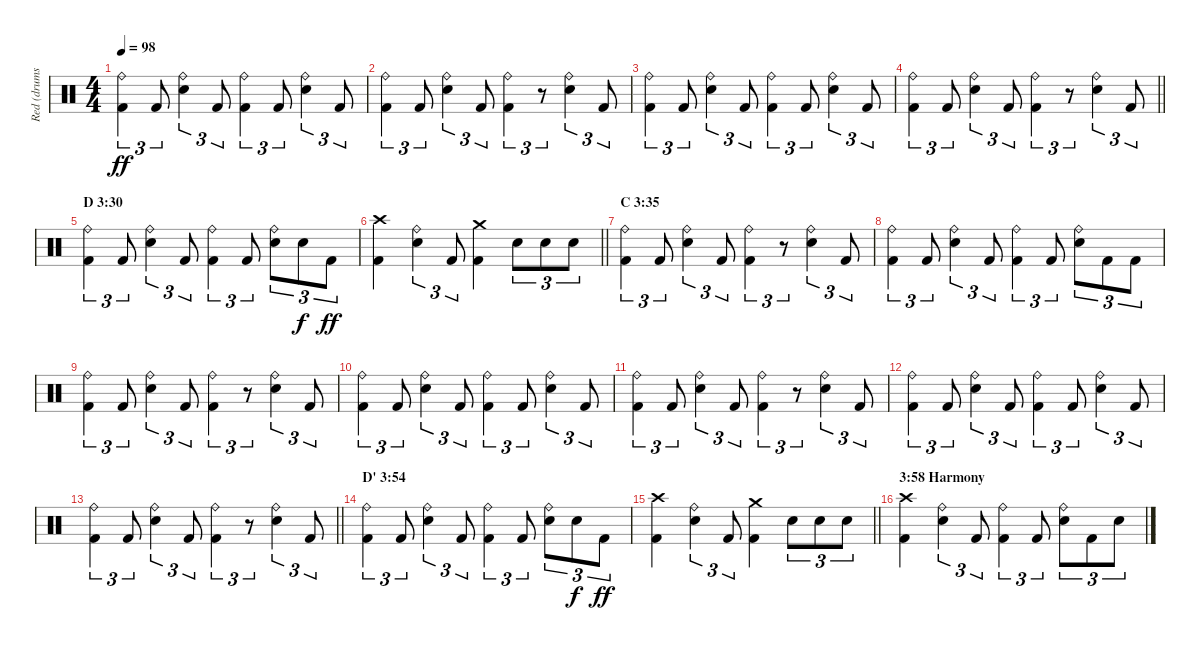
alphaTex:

\track ("Red (drums)" "Red (drums") {instrument percussion}
\staff {score}
\articulation defaults
\ts (4 4)
\tempo 98
\clef neutral
\ks c
("Ride (bell)" "Kick (hit) 2").4{tu (3 2) dy ff} "Kick (hit) 2".8{tu (3 2)} ("Ride (bell)" "Electric Snare (hit)").4{tu (3 2)} "Kick (hit) 2".8{tu (3 2)} ("Ride (bell)" "Kick (hit) 2").4{tu (3 2)} "Kick (hit) 2".8{tu (3 2)} ("Ride (bell)" "Electric Snare (hit)").4{tu (3 2)} "Kick (hit) 2".8{tu (3 2)} |
("Ride (bell)" "Kick (hit) 2").4{tu (3 2)} "Kick (hit) 2".8{tu (3 2)} ("Ride (bell)" "Electric Snare (hit)").4{tu (3 2)} "Kick (hit) 2".8{tu (3 2)} ("Ride (bell)" "Kick (hit) 2").4{tu (3 2)} r.8{tu (3 2)} ("Ride (bell)" "Electric Snare (hit)").4{tu (3 2)} "Kick (hit) 2".8{tu (3 2)} |
("Ride (bell)" "Kick (hit) 2").4{tu (3 2)} "Kick (hit) 2".8{tu (3 2)} ("Ride (bell)" "Electric Snare (hit)").4{tu (3 2)} "Kick (hit) 2".8{tu (3 2)} ("Ride (bell)" "Kick (hit) 2").4{tu (3 2)} "Kick (hit) 2".8{tu (3 2)} ("Ride (bell)" "Electric Snare (hit)").4{tu (3 2)} "Kick (hit) 2".8{tu (3 2)} |
\barLineRight lightlight
("Ride (bell)" "Kick (hit) 2").4{tu (3 2)} "Kick (hit) 2".8{tu (3 2)} ("Ride (bell)" "Electric Snare (hit)").4{tu (3 2)} "Kick (hit) 2".8{tu (3 2)} ("Ride (bell)" "Kick (hit) 2").4{tu (3 2)} r.8{tu (3 2)} ("Ride (bell)" "Electric Snare (hit)").4{tu (3 2)} "Kick (hit) 2".8{tu (3 2)} |
\section ("" "D 3:30")
("Ride (bell)" "Kick (hit) 2").4{tu (3 2)} "Kick (hit) 2".8{tu (3 2)} ("Ride (bell)" "Electric Snare (hit)").4{tu (3 2)} "Kick (hit) 2".8{tu (3 2)} ("Ride (bell)" "Kick (hit) 2").4{tu (3 2)} "Kick (hit) 2".8{tu (3 2)} ("Ride (bell)" "Electric Snare (hit)").8{tu (3 2)} "Electric Snare (hit)".8{tu (3 2) dy f} "Kick (hit) 2".8{tu (3 2) dy ff} |
\barLineRight lightlight
("Crash high (hit)" "Kick (hit) 2").4 ("Ride (bell)" "Electric Snare (hit)").4{tu (3 2)} "Kick (hit) 2".8{tu (3 2)} ("Crash medium (hit)" "Kick (hit) 2").4 "Electric Snare (hit)".8{tu (3 2)} "Electric Snare (hit)".8{tu (3 2)} "Electric Snare (hit)".8{tu (3 2)} |
\section ("" "C 3:35")
("Ride (bell)" "Kick (hit) 2").4{tu (3 2)} "Kick (hit) 2".8{tu (3 2)} ("Ride (bell)" "Electric Snare (hit)").4{tu (3 2)} "Kick (hit) 2".8{tu (3 2)} ("Ride (bell)" "Kick (hit) 2").4{tu (3 2)} r.8{tu (3 2)} ("Ride (bell)" "Electric Snare (hit)").4{tu (3 2)} "Kick (hit) 2".8{tu (3 2)} |
("Ride (bell)" "Kick (hit) 2").4{tu (3 2)} "Kick (hit) 2".8{tu (3 2)} ("Ride (bell)" "Electric Snare (hit)").4{tu (3 2)} "Kick (hit) 2".8{tu (3 2)} ("Ride (bell)" "Kick (hit) 2").4{tu (3 2)} "Kick (hit) 2".8{tu (3 2)} ("Ride (bell)" "Electric Snare (hit)").8{tu (3 2)} "Kick (hit) 2".8{tu (3 2)} "Kick (hit) 2".8{tu (3 2)} |
("Ride (bell)" "Kick (hit) 2").4{tu (3 2)} "Kick (hit) 2".8{tu (3 2)} ("Ride (bell)" "Electric Snare (hit)").4{tu (3 2)} "Kick (hit) 2".8{tu (3 2)} ("Ride (bell)" "Kick (hit) 2").4{tu (3 2)} r.8{tu (3 2)} ("Ride (bell)" "Electric Snare (hit)").4{tu (3 2)} "Kick (hit) 2".8{tu (3 2)} |
("Ride (bell)" "Kick (hit) 2").4{tu (3 2)} "Kick (hit) 2".8{tu (3 2)} ("Ride (bell)" "Electric Snare (hit)").4{tu (3 2)} "Kick (hit) 2".8{tu (3 2)} ("Ride (bell)" "Kick (hit) 2").4{tu (3 2)} "Kick (hit) 2".8{tu (3 2)} ("Ride (bell)" "Electric Snare (hit)").4{tu (3 2)} "Kick (hit) 2".8{tu (3 2)} |
("Ride (bell)" "Kick (hit) 2").4{tu (3 2)} "Kick (hit) 2".8{tu (3 2)} ("Ride (bell)" "Electric Snare (hit)").4{tu (3 2)} "Kick (hit) 2".8{tu (3 2)} ("Ride (bell)" "Kick (hit) 2").4{tu (3 2)} r.8{tu (3 2)} ("Ride (bell)" "Electric Snare (hit)").4{tu (3 2)} "Kick (hit) 2".8{tu (3 2)} |
("Ride (bell)" "Kick (hit) 2").4{tu (3 2)} "Kick (hit) 2".8{tu (3 2)} ("Ride (bell)" "Electric Snare (hit)").4{tu (3 2)} "Kick (hit) 2".8{tu (3 2)} ("Ride (bell)" "Kick (hit) 2").4{tu (3 2)} "Kick (hit) 2".8{tu (3 2)} ("Ride (bell)" "Electric Snare (hit)").4{tu (3 2)} "Kick (hit) 2".8{tu (3 2)} |
\barLineRight lightlight
("Ride (bell)" "Kick (hit) 2").4{tu (3 2)} "Kick (hit) 2".8{tu (3 2)} ("Ride (bell)" "Electric Snare (hit)").4{tu (3 2)} "Kick (hit) 2".8{tu (3 2)} ("Ride (bell)" "Kick (hit) 2").4{tu (3 2)} r.8{tu (3 2)} ("Ride (bell)" "Electric Snare (hit)").4{tu (3 2)} "Kick (hit) 2".8{tu (3 2)} |
\section ("" "D' 3:54")
("Ride (bell)" "Kick (hit) 2").4{tu (3 2)} "Kick (hit) 2".8{tu (3 2)} ("Ride (bell)" "Electric Snare (hit)").4{tu (3 2)} "Kick (hit) 2".8{tu (3 2)} ("Ride (bell)" "Kick (hit) 2").4{tu (3 2)} "Kick (hit) 2".8{tu (3 2)} ("Ride (bell)" "Electric Snare (hit)").8{tu (3 2)} "Electric Snare (hit)".8{tu (3 2) dy f} "Kick (hit) 2".8{tu (3 2) dy ff} |
\barLineRight lightlight
("Crash high (hit)" "Kick (hit) 2").4 ("Ride (bell)" "Electric Snare (hit)").4{tu (3 2)} "Kick (hit) 2".8{tu (3 2)} ("Crash medium (hit)" "Kick (hit) 2").4 "Electric Snare (hit)".8{tu (3 2)} "Electric Snare (hit)".8{tu (3 2)} "Electric Snare (hit)".8{tu (3 2)} |
\section ("" "3:58 Harmony")
("Crash high (hit)" "Kick (hit) 2").4 ("Ride (bell)" "Electric Snare (hit)").4{tu (3 2)} "Kick (hit) 2".8{tu (3 2)} ("Ride (bell)" "Kick (hit) 2").4{tu (3 2)} "Kick (hit) 2".8{tu (3 2)} ("Ride (bell)" "Electric Snare (hit)").8{tu (3 2)} "Kick (hit) 2".8{tu (3 2)} "Electric Snare (hit)".8{tu (3 2)}
